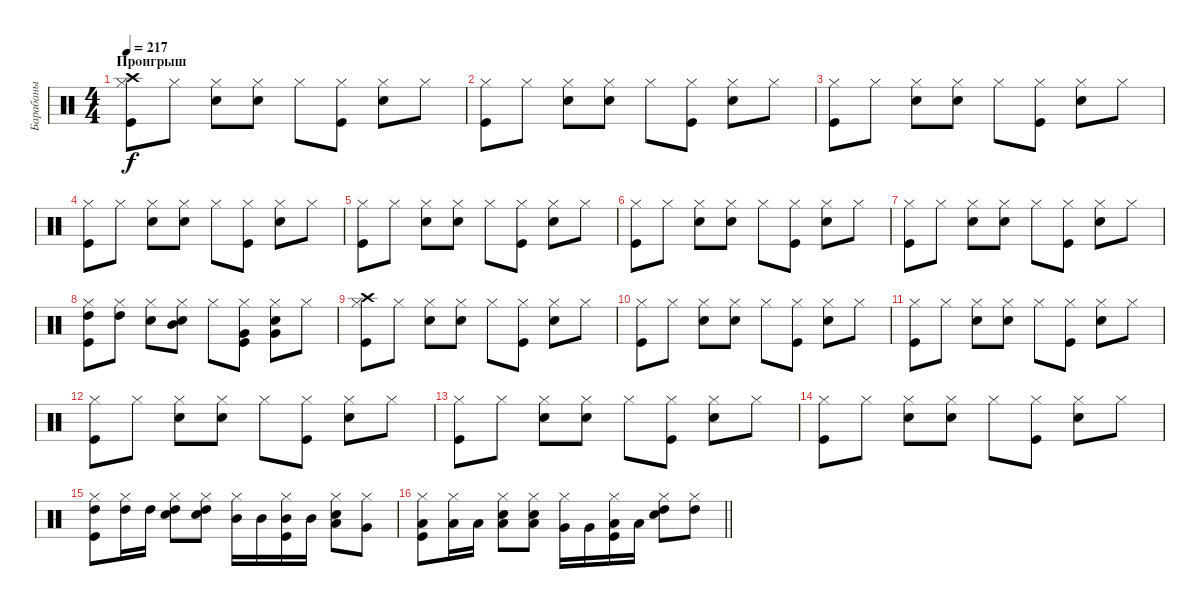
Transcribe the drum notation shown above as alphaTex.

\track ("Барабаны" "Барабаны") {instrument percussion}
\staff {score}
\articulation defaults
\ts (4 4)
\section ("" "Проигрыш")
\tempo 217
\clef neutral
\ks c
("Kick (hit)" "Hi-Hat (closed)" "Crash high (hit)").8{dy f} "Hi-Hat (closed)".8 ("Snare (hit) 2" "Hi-Hat (closed)").8 ("Snare (hit) 2" "Hi-Hat (closed)").8 "Hi-Hat (closed)".8 ("Kick (hit)" "Hi-Hat (closed)").8 ("Snare (hit) 2" "Hi-Hat (closed)").8 "Hi-Hat (closed)".8 |
("Kick (hit)" "Hi-Hat (closed)").8 "Hi-Hat (closed)".8 ("Snare (hit) 2" "Hi-Hat (closed)").8 ("Snare (hit) 2" "Hi-Hat (closed)").8 "Hi-Hat (closed)".8 ("Kick (hit)" "Hi-Hat (closed)").8 ("Snare (hit) 2" "Hi-Hat (closed)").8 "Hi-Hat (closed)".8 |
("Kick (hit)" "Hi-Hat (closed)").8 "Hi-Hat (closed)".8 ("Snare (hit) 2" "Hi-Hat (closed)").8 ("Snare (hit) 2" "Hi-Hat (closed)").8 "Hi-Hat (closed)".8 ("Kick (hit)" "Hi-Hat (closed)").8 ("Snare (hit) 2" "Hi-Hat (closed)").8 "Hi-Hat (closed)".8 |
("Kick (hit)" "Hi-Hat (closed)").8 "Hi-Hat (closed)".8 ("Snare (hit) 2" "Hi-Hat (closed)").8 ("Snare (hit) 2" "Hi-Hat (closed)").8 "Hi-Hat (closed)".8 ("Kick (hit)" "Hi-Hat (closed)").8 ("Snare (hit) 2" "Hi-Hat (closed)").8 "Hi-Hat (closed)".8 |
("Kick (hit)" "Hi-Hat (closed)").8 "Hi-Hat (closed)".8 ("Snare (hit) 2" "Hi-Hat (closed)").8 ("Snare (hit) 2" "Hi-Hat (closed)").8 "Hi-Hat (closed)".8 ("Kick (hit)" "Hi-Hat (closed)").8 ("Snare (hit) 2" "Hi-Hat (closed)").8 "Hi-Hat (closed)".8 |
("Kick (hit)" "Hi-Hat (closed)").8 "Hi-Hat (closed)".8 ("Snare (hit) 2" "Hi-Hat (closed)").8 ("Snare (hit) 2" "Hi-Hat (closed)").8 "Hi-Hat (closed)".8 ("Kick (hit)" "Hi-Hat (closed)").8 ("Snare (hit) 2" "Hi-Hat (closed)").8 "Hi-Hat (closed)".8 |
("Kick (hit)" "Hi-Hat (closed)").8 "Hi-Hat (closed)".8 ("Snare (hit) 2" "Hi-Hat (closed)").8 ("Snare (hit) 2" "Hi-Hat (closed)").8 "Hi-Hat (closed)".8 ("Kick (hit)" "Hi-Hat (closed)").8 ("Snare (hit) 2" "Hi-Hat (closed)").8 "Hi-Hat (closed)".8 |
("Kick (hit)" "Hi-Hat (closed)" "High Tom (hit)").8 ("Hi-Hat (closed)" "High Tom (hit)").8 ("Snare (hit) 2" "Hi-Hat (closed)").8 ("Snare (hit) 2" "Hi-Hat (closed)" "Mid Tom (hit)").8 "Hi-Hat (closed)".8 ("Kick (hit)" "Hi-Hat (closed)" "Very Low Tom (hit)").8 ("Snare (hit) 2" "Hi-Hat (closed)" "Very Low Tom (hit)").8 "Hi-Hat (closed)".8 |
("Kick (hit)" "Hi-Hat (closed)" "Crash high (hit)").8 "Hi-Hat (closed)".8 ("Snare (hit) 2" "Hi-Hat (closed)").8 ("Snare (hit) 2" "Hi-Hat (closed)").8 "Hi-Hat (closed)".8 ("Kick (hit)" "Hi-Hat (closed)").8 ("Snare (hit) 2" "Hi-Hat (closed)").8 "Hi-Hat (closed)".8 |
("Kick (hit)" "Hi-Hat (closed)").8 "Hi-Hat (closed)".8 ("Snare (hit) 2" "Hi-Hat (closed)").8 ("Snare (hit) 2" "Hi-Hat (closed)").8 "Hi-Hat (closed)".8 ("Kick (hit)" "Hi-Hat (closed)").8 ("Snare (hit) 2" "Hi-Hat (closed)").8 "Hi-Hat (closed)".8 |
("Kick (hit)" "Hi-Hat (closed)").8 "Hi-Hat (closed)".8 ("Snare (hit) 2" "Hi-Hat (closed)").8 ("Snare (hit) 2" "Hi-Hat (closed)").8 "Hi-Hat (closed)".8 ("Kick (hit)" "Hi-Hat (closed)").8 ("Snare (hit) 2" "Hi-Hat (closed)").8 "Hi-Hat (closed)".8 |
("Kick (hit)" "Hi-Hat (closed)").8 "Hi-Hat (closed)".8 ("Snare (hit) 2" "Hi-Hat (closed)").8 ("Snare (hit) 2" "Hi-Hat (closed)").8 "Hi-Hat (closed)".8 ("Kick (hit)" "Hi-Hat (closed)").8 ("Snare (hit) 2" "Hi-Hat (closed)").8 "Hi-Hat (closed)".8 |
("Kick (hit)" "Hi-Hat (closed)").8 "Hi-Hat (closed)".8 ("Snare (hit) 2" "Hi-Hat (closed)").8 ("Snare (hit) 2" "Hi-Hat (closed)").8 "Hi-Hat (closed)".8 ("Kick (hit)" "Hi-Hat (closed)").8 ("Snare (hit) 2" "Hi-Hat (closed)").8 "Hi-Hat (closed)".8 |
("Kick (hit)" "Hi-Hat (closed)").8 "Hi-Hat (closed)".8 ("Snare (hit) 2" "Hi-Hat (closed)").8 ("Snare (hit) 2" "Hi-Hat (closed)").8 "Hi-Hat (closed)".8 ("Kick (hit)" "Hi-Hat (closed)").8 ("Snare (hit) 2" "Hi-Hat (closed)").8 "Hi-Hat (closed)".8 |
("Kick (hit)" "Hi-Hat (closed)" "High Tom (hit)").8 ("Hi-Hat (closed)" "High Tom (hit)").16 "High Tom (hit)".16 ("Snare (hit) 2" "Hi-Hat (closed)" "High Tom (hit)").8 ("Snare (hit) 2" "Hi-Hat (closed)" "High Tom (hit)").8 ("Hi-Hat (closed)" "Mid Tom (hit)").16 "Mid Tom (hit)".16 ("Kick (hit)" "Hi-Hat (closed)" "Mid Tom (hit)").16 "Mid Tom (hit)".16 ("Snare (hit) 2" "Hi-Hat (closed)" "Low Tom (hit)").8 ("Hi-Hat (closed)" "Very Low Tom (hit)").8 |
\barLineRight lightlight
("Kick (hit)" "Hi-Hat (closed)" "Low Tom (hit)").8 ("Hi-Hat (closed)" "Low Tom (hit)").16 "Low Tom (hit)".16 ("Snare (hit) 2" "Hi-Hat (closed)" "Low Tom (hit)").8 ("Snare (hit) 2" "Hi-Hat (closed)" "Low Tom (hit)").8 ("Hi-Hat (closed)" "Very Low Tom (hit)").16 "Very Low Tom (hit)".16 ("Kick (hit)" "Hi-Hat (closed)" "Low Floor Tom (hit)").16 "Low Floor Tom (hit)".16 ("Snare (hit) 2" "Hi-Hat (closed)" "High Tom (hit)").8 ("Hi-Hat (closed)" "High Tom (hit)").8
